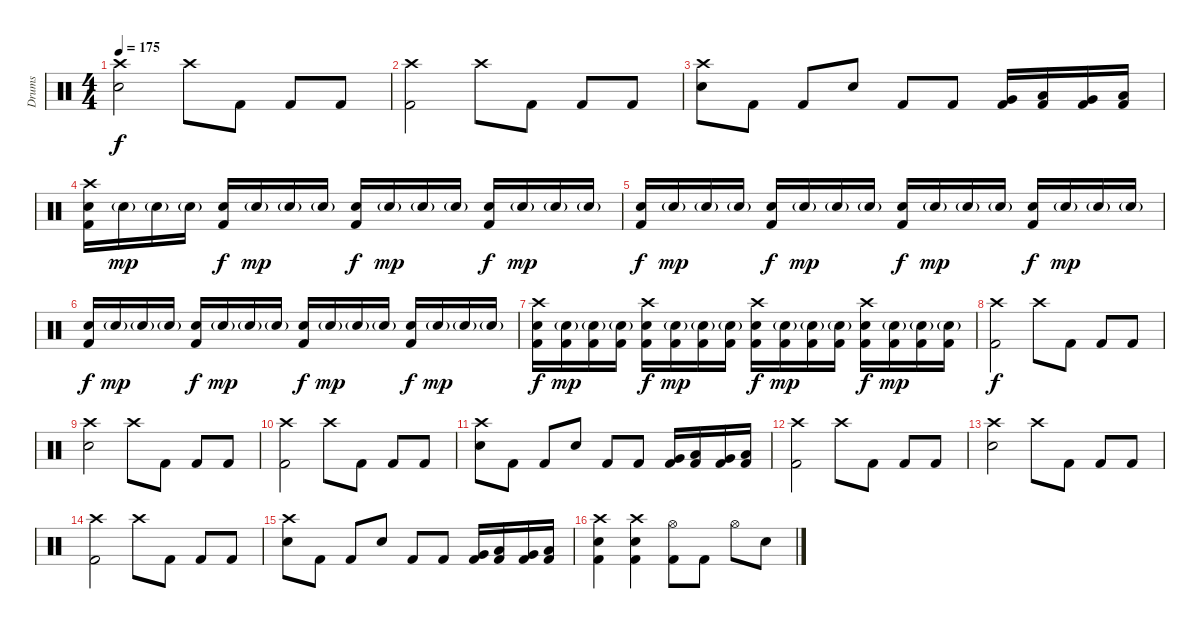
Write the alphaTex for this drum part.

\track ("Drums" "Drums") {instrument percussion}
\staff {score}
\articulation defaults
\ts (4 4)
\tempo 175
\clef neutral
\ks c
("Crash high (hit)" "Electric Snare (hit)").2{dy f} "Crash high (hit)".8 "Kick (hit) 2".8 "Kick (hit) 2".8 "Kick (hit) 2".8 |
("Crash high (hit)" "Kick (hit) 2").2 "Crash high (hit)".8 "Kick (hit) 2".8 "Kick (hit) 2".8 "Kick (hit) 2".8 |
("Crash high (hit)" "Electric Snare (hit)").8 "Kick (hit) 2".8 "Kick (hit) 2".8 "Electric Snare (hit)".8 "Kick (hit) 2".8 "Kick (hit) 2".8 ("Very Low Tom (hit)" "Kick (hit) 2").16 ("Low Tom (hit)" "Kick (hit) 2").16 ("Very Low Tom (hit)" "Kick (hit) 2").16 ("Low Floor Tom (hit)" "Kick (hit) 2").16 |
("Crash high (hit)" "Electric Snare (hit)" "Kick (hit) 2").16 "Electric Snare (hit)"{g}.16{dy mp} "Electric Snare (hit)"{g}.16 "Electric Snare (hit)"{g}.16 ("Electric Snare (hit)" "Kick (hit) 2").16{dy f} "Electric Snare (hit)"{g}.16{dy mp} "Electric Snare (hit)"{g}.16 "Electric Snare (hit)"{g}.16 ("Electric Snare (hit)" "Kick (hit) 2").16{dy f} "Electric Snare (hit)"{g}.16{dy mp} "Electric Snare (hit)"{g}.16 "Electric Snare (hit)"{g}.16 ("Electric Snare (hit)" "Kick (hit) 2").16{dy f} "Electric Snare (hit)"{g}.16{dy mp} "Electric Snare (hit)"{g}.16 "Electric Snare (hit)"{g}.16 |
("Electric Snare (hit)" "Kick (hit) 2").16{dy f} "Electric Snare (hit)"{g}.16{dy mp} "Electric Snare (hit)"{g}.16 "Electric Snare (hit)"{g}.16 ("Electric Snare (hit)" "Kick (hit) 2").16{dy f} "Electric Snare (hit)"{g}.16{dy mp} "Electric Snare (hit)"{g}.16 "Electric Snare (hit)"{g}.16 ("Electric Snare (hit)" "Kick (hit) 2").16{dy f} "Electric Snare (hit)"{g}.16{dy mp} "Electric Snare (hit)"{g}.16 "Electric Snare (hit)"{g}.16 ("Electric Snare (hit)" "Kick (hit) 2").16{dy f} "Electric Snare (hit)"{g}.16{dy mp} "Electric Snare (hit)"{g}.16 "Electric Snare (hit)"{g}.16 |
("Electric Snare (hit)" "Kick (hit) 2").16{dy f} "Electric Snare (hit)"{g}.16{dy mp} "Electric Snare (hit)"{g}.16 "Electric Snare (hit)"{g}.16 ("Electric Snare (hit)" "Kick (hit) 2").16{dy f} "Electric Snare (hit)"{g}.16{dy mp} "Electric Snare (hit)"{g}.16 "Electric Snare (hit)"{g}.16 ("Electric Snare (hit)" "Kick (hit) 2").16{dy f} "Electric Snare (hit)"{g}.16{dy mp} "Electric Snare (hit)"{g}.16 "Electric Snare (hit)"{g}.16 ("Electric Snare (hit)" "Kick (hit) 2").16{dy f} "Electric Snare (hit)"{g}.16{dy mp} "Electric Snare (hit)"{g}.16 "Electric Snare (hit)"{g}.16 |
("Crash high (hit)" "Electric Snare (hit)" "Kick (hit) 2").16{dy f} ("Electric Snare (hit)"{g} "Kick (hit) 2").16{dy mp} ("Electric Snare (hit)"{g} "Kick (hit) 2").16 ("Electric Snare (hit)"{g} "Kick (hit) 2").16 ("Crash high (hit)" "Electric Snare (hit)" "Kick (hit) 2").16{dy f} ("Electric Snare (hit)"{g} "Kick (hit) 2").16{dy mp} ("Electric Snare (hit)"{g} "Kick (hit) 2").16 ("Electric Snare (hit)"{g} "Kick (hit) 2").16 ("Crash high (hit)" "Electric Snare (hit)" "Kick (hit) 2").16{dy f} ("Electric Snare (hit)"{g} "Kick (hit) 2").16{dy mp} ("Electric Snare (hit)"{g} "Kick (hit) 2").16 ("Electric Snare (hit)"{g} "Kick (hit) 2").16 ("Crash high (hit)" "Electric Snare (hit)" "Kick (hit) 2").16{dy f} ("Electric Snare (hit)"{g} "Kick (hit) 2").16{dy mp} ("Electric Snare (hit)"{g} "Kick (hit) 2").16 ("Electric Snare (hit)"{g} "Kick (hit) 2").16 |
("Crash high (hit)" "Kick (hit) 2").2{dy f} "Crash high (hit)".8 "Kick (hit) 2".8 "Kick (hit) 2".8 "Kick (hit) 2".8 |
("Crash high (hit)" "Electric Snare (hit)").2 "Crash high (hit)".8 "Kick (hit) 2".8 "Kick (hit) 2".8 "Kick (hit) 2".8 |
("Crash high (hit)" "Kick (hit) 2").2 "Crash high (hit)".8 "Kick (hit) 2".8 "Kick (hit) 2".8 "Kick (hit) 2".8 |
("Crash high (hit)" "Electric Snare (hit)").8 "Kick (hit) 2".8 "Kick (hit) 2".8 "Electric Snare (hit)".8 "Kick (hit) 2".8 "Kick (hit) 2".8 ("Very Low Tom (hit)" "Kick (hit) 2").16 ("Low Tom (hit)" "Kick (hit) 2").16 ("Very Low Tom (hit)" "Kick (hit) 2").16 ("Low Floor Tom (hit)" "Kick (hit) 2").16 |
("Crash high (hit)" "Kick (hit) 2").2 "Crash high (hit)".8 "Kick (hit) 2".8 "Kick (hit) 2".8 "Kick (hit) 2".8 |
("Crash high (hit)" "Electric Snare (hit)").2 "Crash high (hit)".8 "Kick (hit) 2".8 "Kick (hit) 2".8 "Kick (hit) 2".8 |
("Crash high (hit)" "Kick (hit) 2").2 "Crash high (hit)".8 "Kick (hit) 2".8 "Kick (hit) 2".8 "Kick (hit) 2".8 |
("Crash high (hit)" "Electric Snare (hit)").8 "Kick (hit) 2".8 "Kick (hit) 2".8 "Electric Snare (hit)".8 "Kick (hit) 2".8 "Kick (hit) 2".8 ("Very Low Tom (hit)" "Kick (hit) 2").16 ("Low Tom (hit)" "Kick (hit) 2").16 ("Very Low Tom (hit)" "Kick (hit) 2").16 ("Low Floor Tom (hit)" "Kick (hit) 2").16 |
("Crash high (hit)" "Electric Snare (hit)" "Kick (hit) 2").4 ("Crash high (hit)" "Electric Snare (hit)" "Kick (hit) 2").4 ("Hi-Hat (open)" "Kick (hit) 2").8 "Kick (hit) 2".8 "Hi-Hat (open)".8 "Electric Snare (hit)".8
